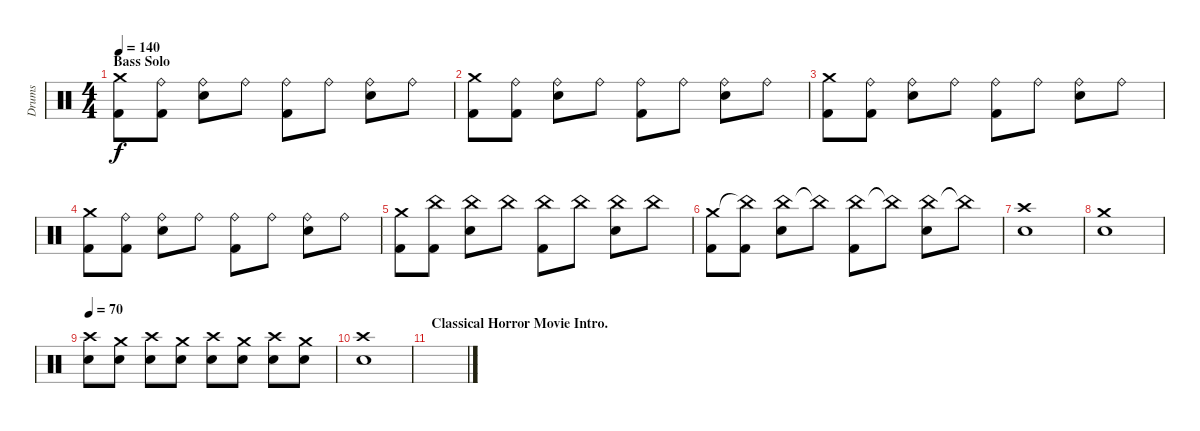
\track ("Drums" "Drums") {instrument percussion}
\staff {score}
\articulation defaults
\ts (4 4)
\section ("" "Bass Solo")
\tempo 140
\clef neutral
\ks c
("Crash medium (hit)" "Kick (hit) 2").8{dy f} ("Ride (bell)" "Kick (hit) 2").8 ("Ride (bell)" "Electric Snare (hit)").8 "Ride (bell)".8 ("Ride (bell)" "Kick (hit) 2").8 "Ride (bell)".8 ("Ride (bell)" "Electric Snare (hit)").8 "Ride (bell)".8 |
("Crash medium (hit)" "Kick (hit) 2").8 ("Ride (bell)" "Kick (hit) 2").8 ("Ride (bell)" "Electric Snare (hit)").8 "Ride (bell)".8 ("Ride (bell)" "Kick (hit) 2").8 "Ride (bell)".8 ("Ride (bell)" "Electric Snare (hit)").8 "Ride (bell)".8 |
("Crash medium (hit)" "Kick (hit) 2").8 ("Ride (bell)" "Kick (hit) 2").8 ("Ride (bell)" "Electric Snare (hit)").8 "Ride (bell)".8 ("Ride (bell)" "Kick (hit) 2").8 "Ride (bell)".8 ("Ride (bell)" "Electric Snare (hit)").8 "Ride (bell)".8 |
("Crash medium (hit)" "Kick (hit) 2").8 ("Ride (bell)" "Kick (hit) 2").8 ("Ride (bell)" "Electric Snare (hit)").8 "Ride (bell)".8 ("Ride (bell)" "Kick (hit) 2").8 "Ride (bell)".8 ("Ride (bell)" "Electric Snare (hit)").8 "Ride (bell)".8 |
("Crash medium (hit)" "Kick (hit) 2").8 ("China (hit)" "Kick (hit) 2").8 ("China (hit)" "Electric Snare (hit)").8 "China (hit)".8 ("China (hit)" "Kick (hit) 2").8 "China (hit)".8 ("China (hit)" "Electric Snare (hit)").8 "China (hit)".8 |
("Crash medium (hit)" "Kick (hit) 2").8 ("China (hit)"{t} "Kick (hit) 2").8 ("China (hit)" "Electric Snare (hit)").8 "China (hit)"{t}.8 ("China (hit)" "Kick (hit) 2").8 "China (hit)"{t}.8 ("China (hit)" "Electric Snare (hit)").8 "China (hit)"{t}.8 |
("Crash high (hit)" "Electric Snare (hit)").1 |
("Crash medium (hit)" "Electric Snare (hit)").1 |
\tempo 70
("Crash high (hit)" "Electric Snare (hit)").8 ("Crash medium (hit)" "Electric Snare (hit)").8 ("Crash high (hit)" "Electric Snare (hit)").8 ("Crash medium (hit)" "Electric Snare (hit)").8 ("Crash high (hit)" "Electric Snare (hit)").8 ("Crash medium (hit)" "Electric Snare (hit)").8 ("Crash high (hit)" "Electric Snare (hit)").8 ("Crash medium (hit)" "Electric Snare (hit)").8 |
("Crash high (hit)" "Electric Snare (hit)").1 |
\section ("" "Classical Horror Movie Intro.")
